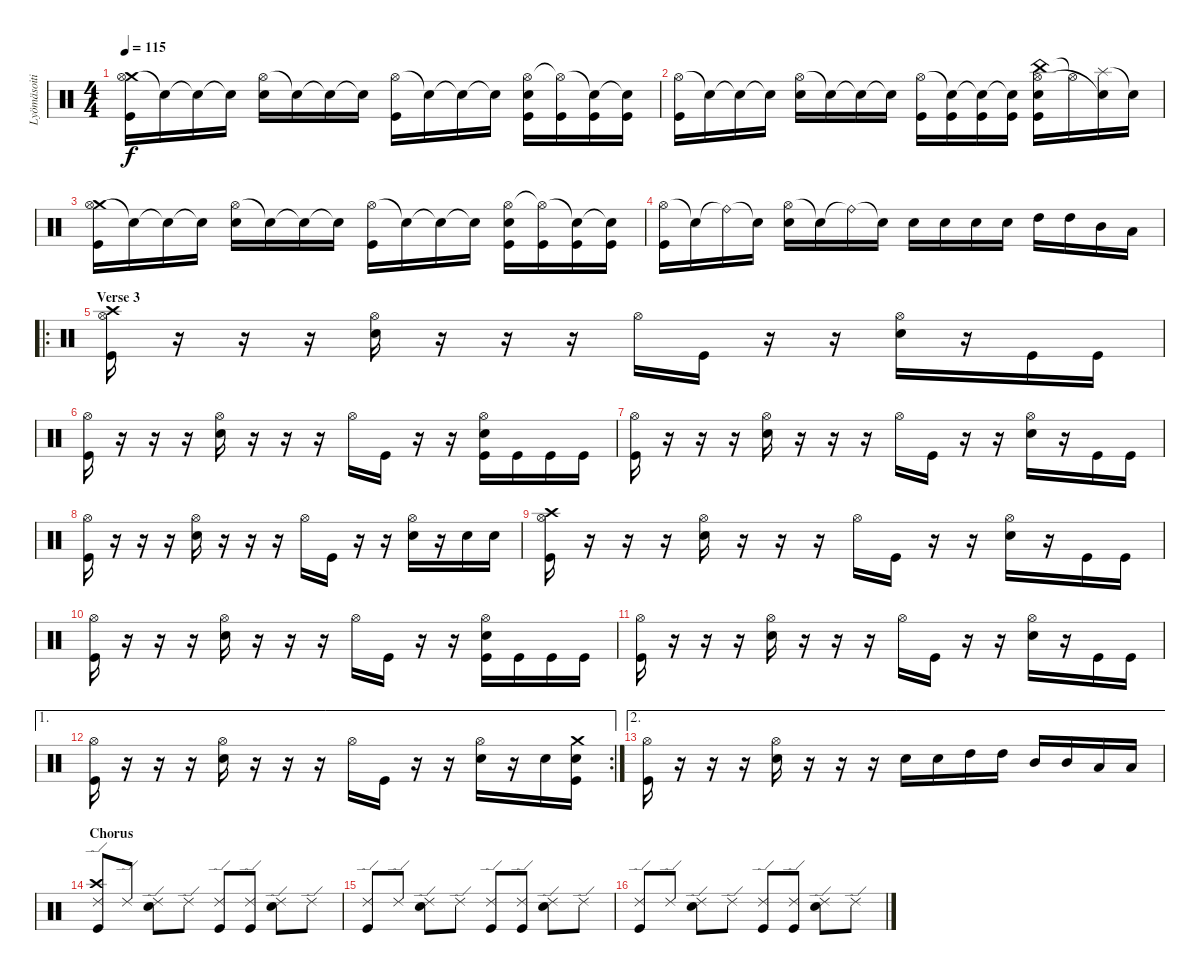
\track ("Lyömäsoitin" "Lyömäsoiti") {instrument percussion}
\staff {score}
\articulation defaults
\ts (4 4)
\tempo 115
\clef neutral
\ks c
("Crash medium (hit)" "Hi-Hat (open)" "Kick (hit)").16{dy f} "Snare (hit)"{t}.16 "Snare (hit)"{t}.16 "Snare (hit)"{t}.16 ("Hi-Hat (open)" "Snare (hit) 2").16 "Snare (hit)"{t}.16 "Snare (hit)"{t}.16 "Snare (hit)"{t}.16 ("Hi-Hat (open)" "Kick (hit)").16 "Snare (hit)"{t}.16 "Snare (hit)"{t}.16 "Snare (hit)"{t}.16 ("Hi-Hat (open)" "Snare (hit) 2" "Kick (hit)").16 ("Hi-Hat (open)"{t} "Kick (hit)").16 ("Snare (hit)"{t} "Kick (hit)").16 ("Snare (hit)"{t} "Kick (hit)").16 |
("Hi-Hat (open)" "Kick (hit)").16 "Snare (hit)"{t}.16 "Snare (hit)"{t}.16 "Snare (hit)"{t}.16 ("Hi-Hat (open)" "Snare (hit) 2").16 "Snare (hit)"{t}.16 "Snare (hit)"{t}.16 "Snare (hit)"{t}.16 ("Hi-Hat (open)" "Kick (hit)").16 ("Snare (hit)"{t} "Kick (hit)").16 ("Snare (hit)"{t} "Kick (hit)").16 ("Snare (hit)"{t} "Kick (hit)").16 ("China (hit)" "Hi-Hat (open)" "Snare (hit) 2" "Kick (hit)").16 "Hi-Hat (open)"{t}.16 ("Splash (hit)" "Snare (hit)"{t}).16 "Snare (hit)"{t}.16 |
("Crash medium (hit)" "Hi-Hat (open)" "Kick (hit)").16 "Snare (hit)"{t}.16 "Snare (hit)"{t}.16 "Snare (hit)"{t}.16 ("Hi-Hat (open)" "Snare (hit) 2").16 "Snare (hit)"{t}.16 "Snare (hit)"{t}.16 "Snare (hit)"{t}.16 ("Hi-Hat (open)" "Kick (hit)").16 "Snare (hit)"{t}.16 "Snare (hit)"{t}.16 "Snare (hit)"{t}.16 ("Hi-Hat (open)" "Snare (hit) 2" "Kick (hit)").16 ("Hi-Hat (open)"{t} "Kick (hit)").16 ("Snare (hit)"{t} "Kick (hit)").16 ("Snare (hit)"{t} "Kick (hit)").16 |
("Hi-Hat (open)" "Kick (hit)").16 "Snare (hit)"{t}.16 "Ride (bell)"{t}.16 "Snare (hit)"{t}.16 ("Hi-Hat (open)" "Snare (hit) 2").16 "Snare (hit)"{t}.16 "Ride (bell)"{t}.16 "Snare (hit)"{t}.16 "Snare (hit) 2".16 "Snare (hit) 2".16 "Snare (hit) 2".16 "Snare (hit) 2".16 "High Tom (hit)".16 "High Tom (hit)".16 "Mid Tom (hit)".16 "Low Tom (hit)".16 |
\ro
\section ("" "Verse 3")
("Crash high (hit)" "Hi-Hat (open)" "Kick (hit)").16 r.16 r.16 r.16 ("Hi-Hat (open)" "Snare (hit) 2").16 r.16 r.16 r.16 "Hi-Hat (open)".16 "Kick (hit)".16 r.16 r.16 ("Hi-Hat (open)" "Snare (hit) 2").16 r.16 "Kick (hit)".16 "Kick (hit)".16 |
("Hi-Hat (open)" "Kick (hit)").16 r.16 r.16 r.16 ("Hi-Hat (open)" "Snare (hit) 2").16 r.16 r.16 r.16 "Hi-Hat (open)".16 "Kick (hit)".16 r.16 r.16 ("Hi-Hat (open)" "Snare (hit) 2" "Kick (hit)").16 "Kick (hit)".16 "Kick (hit)".16 "Kick (hit)".16 |
("Hi-Hat (open)" "Kick (hit)").16 r.16 r.16 r.16 ("Hi-Hat (open)" "Snare (hit) 2").16 r.16 r.16 r.16 "Hi-Hat (open)".16 "Kick (hit)".16 r.16 r.16 ("Hi-Hat (open)" "Snare (hit) 2").16 r.16 "Kick (hit)".16 "Kick (hit)".16 |
("Hi-Hat (open)" "Kick (hit)").16 r.16 r.16 r.16 ("Hi-Hat (open)" "Snare (hit) 2").16 r.16 r.16 r.16 "Hi-Hat (open)".16 "Kick (hit)".16 r.16 r.16 ("Hi-Hat (open)" "Snare (hit) 2").16 r.16 "Snare (hit) 2".16 "Snare (hit) 2".16 |
("Crash high (hit)" "Hi-Hat (open)" "Kick (hit)").16 r.16 r.16 r.16 ("Hi-Hat (open)" "Snare (hit) 2").16 r.16 r.16 r.16 "Hi-Hat (open)".16 "Kick (hit)".16 r.16 r.16 ("Hi-Hat (open)" "Snare (hit) 2").16 r.16 "Kick (hit)".16 "Kick (hit)".16 |
("Hi-Hat (open)" "Kick (hit)").16 r.16 r.16 r.16 ("Hi-Hat (open)" "Snare (hit) 2").16 r.16 r.16 r.16 "Hi-Hat (open)".16 "Kick (hit)".16 r.16 r.16 ("Hi-Hat (open)" "Snare (hit) 2" "Kick (hit)").16 "Kick (hit)".16 "Kick (hit)".16 "Kick (hit)".16 |
("Hi-Hat (open)" "Kick (hit)").16 r.16 r.16 r.16 ("Hi-Hat (open)" "Snare (hit) 2").16 r.16 r.16 r.16 "Hi-Hat (open)".16 "Kick (hit)".16 r.16 r.16 ("Hi-Hat (open)" "Snare (hit) 2").16 r.16 "Kick (hit)".16 "Kick (hit)".16 |
\ae 1
\rc 2
("Hi-Hat (open)" "Kick (hit)").16 r.16 r.16 r.16 ("Hi-Hat (open)" "Snare (hit) 2").16 r.16 r.16 r.16 "Hi-Hat (open)".16 "Kick (hit)".16 r.16 r.16 ("Hi-Hat (open)" "Snare (hit) 2").16 r.16 "Snare (hit) 2".16 ("Crash medium (hit)" "Snare (hit) 2" "Kick (hit)").16 |
\ae 2
("Hi-Hat (open)" "Kick (hit)").16 r.16 r.16 r.16 ("Hi-Hat (open)" "Snare (hit) 2").16 r.16 r.16 r.16 "Snare (hit) 2".16 "Snare (hit) 2".16 "High Tom (hit)".16 "High Tom (hit)".16 "Mid Tom (hit)".16 "Mid Tom (hit)".16 "Low Tom (hit)".16 "Low Tom (hit)".16 |
\section ("" "Chorus")
("Crash high (hit)" "Ride (edge) 2" "Kick (hit)").8 "Ride (edge) 2".8 ("Ride (edge) 2" "Snare (hit) 2").8 "Ride (edge) 2".8 ("Ride (edge) 2" "Kick (hit)").8 ("Ride (edge) 2" "Kick (hit)").8 ("Ride (edge) 2" "Snare (hit) 2").8 "Ride (edge) 2".8 |
("Ride (edge) 2" "Kick (hit)").8 "Ride (edge) 2".8 ("Ride (edge) 2" "Snare (hit) 2").8 "Ride (edge) 2".8 ("Ride (edge) 2" "Kick (hit)").8 ("Ride (edge) 2" "Kick (hit)").8 ("Ride (edge) 2" "Snare (hit) 2").8 "Ride (edge) 2".8 |
("Ride (edge) 2" "Kick (hit)").8 "Ride (edge) 2".8 ("Ride (edge) 2" "Snare (hit) 2").8 "Ride (edge) 2".8 ("Ride (edge) 2" "Kick (hit)").8 ("Ride (edge) 2" "Kick (hit)").8 ("Ride (edge) 2" "Snare (hit) 2").8 "Ride (edge) 2".8
